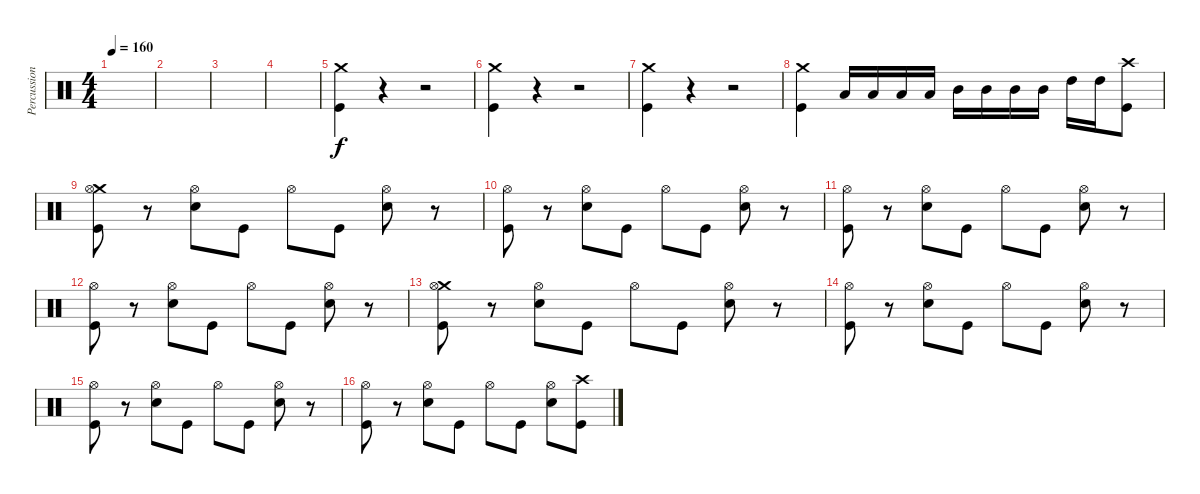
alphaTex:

\track ("Percussion" "Percussion") {instrument percussion}
\staff {score}
\articulation defaults
\ts (4 4)
\tempo 160
\clef neutral
\ks c
|
|
|
|
("Crash medium (hit)" "Kick (hit)").4 r.4 r.2 |
("Crash medium (hit)" "Kick (hit)").4 r.4 r.2 |
("Crash medium (hit)" "Kick (hit)").4 r.4 r.2 |
("Crash medium (hit)" "Kick (hit)").4 "Low Tom (hit)".16 "Low Tom (hit)".16 "Low Tom (hit)".16 "Low Tom (hit)".16 "Mid Tom (hit)".16 "Mid Tom (hit)".16 "Mid Tom (hit)".16 "Mid Tom (hit)".16 "High Tom (hit)".16 "High Tom (hit)".16 ("Crash high (hit)" "Kick (hit)").8 |
("Crash medium (hit)" "Hi-Hat (open)" "Kick (hit)").8 r.8 ("Snare (hit) 2" "Hi-Hat (open)").8 "Kick (hit)".8 "Hi-Hat (open)".8 "Kick (hit)".8 ("Snare (hit) 2" "Hi-Hat (open)").8 r.8 |
("Hi-Hat (open)" "Kick (hit)").8 r.8 ("Snare (hit) 2" "Hi-Hat (open)").8 "Kick (hit)".8 "Hi-Hat (open)".8 "Kick (hit)".8 ("Snare (hit) 2" "Hi-Hat (open)").8 r.8 |
("Hi-Hat (open)" "Kick (hit)").8 r.8 ("Snare (hit) 2" "Hi-Hat (open)").8 "Kick (hit)".8 "Hi-Hat (open)".8 "Kick (hit)".8 ("Snare (hit) 2" "Hi-Hat (open)").8 r.8 |
("Hi-Hat (open)" "Kick (hit)").8 r.8 ("Snare (hit) 2" "Hi-Hat (open)").8 "Kick (hit)".8 "Hi-Hat (open)".8 "Kick (hit)".8 ("Snare (hit) 2" "Hi-Hat (open)").8 r.8 |
("Crash medium (hit)" "Hi-Hat (open)" "Kick (hit)").8 r.8 ("Snare (hit) 2" "Hi-Hat (open)").8 "Kick (hit)".8 "Hi-Hat (open)".8 "Kick (hit)".8 ("Snare (hit) 2" "Hi-Hat (open)").8 r.8 |
("Hi-Hat (open)" "Kick (hit)").8 r.8 ("Snare (hit) 2" "Hi-Hat (open)").8 "Kick (hit)".8 "Hi-Hat (open)".8 "Kick (hit)".8 ("Snare (hit) 2" "Hi-Hat (open)").8 r.8 |
("Hi-Hat (open)" "Kick (hit)").8 r.8 ("Snare (hit) 2" "Hi-Hat (open)").8 "Kick (hit)".8 "Hi-Hat (open)".8 "Kick (hit)".8 ("Snare (hit) 2" "Hi-Hat (open)").8 r.8 |
("Hi-Hat (open)" "Kick (hit)").8 r.8 ("Snare (hit) 2" "Hi-Hat (open)").8 "Kick (hit)".8 "Hi-Hat (open)".8 "Kick (hit)".8 ("Snare (hit) 2" "Hi-Hat (open)").8 ("Crash high (hit)" "Kick (hit)").8
